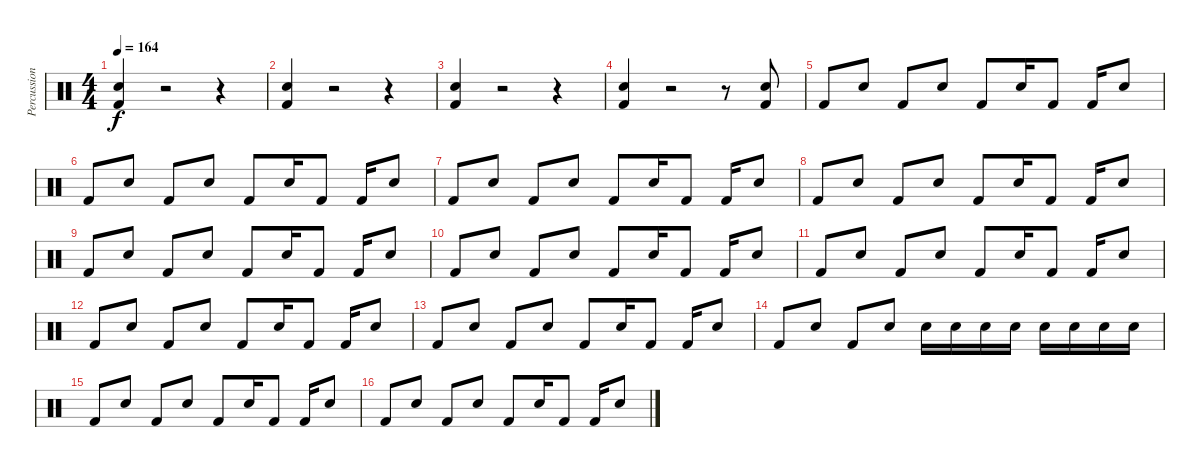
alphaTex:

\track ("Percussion" "Percussion") {instrument percussion}
\staff {score}
\articulation defaults
\ts (4 4)
\tempo 164
\clef neutral
\ks c
("Snare (hit) 2" "Kick (hit) 2").4{dy f} r.2 r.4 |
("Snare (hit) 2" "Kick (hit) 2").4 r.2 r.4 |
("Snare (hit) 2" "Kick (hit) 2").4 r.2 r.4 |
("Snare (hit) 2" "Kick (hit) 2").4 r.2 r.8 ("Snare (hit) 2" "Kick (hit) 2").8 |
"Kick (hit) 2".8 "Snare (hit) 2".8 "Kick (hit) 2".8 "Snare (hit) 2".8 "Kick (hit) 2".8 "Snare (hit) 2".16 "Kick (hit) 2".8 "Kick (hit) 2".16 "Snare (hit) 2".8 |
"Kick (hit) 2".8 "Snare (hit) 2".8 "Kick (hit) 2".8 "Snare (hit) 2".8 "Kick (hit) 2".8 "Snare (hit) 2".16 "Kick (hit) 2".8 "Kick (hit) 2".16 "Snare (hit) 2".8 |
"Kick (hit) 2".8 "Snare (hit) 2".8 "Kick (hit) 2".8 "Snare (hit) 2".8 "Kick (hit) 2".8 "Snare (hit) 2".16 "Kick (hit) 2".8 "Kick (hit) 2".16 "Snare (hit) 2".8 |
"Kick (hit) 2".8 "Snare (hit) 2".8 "Kick (hit) 2".8 "Snare (hit) 2".8 "Kick (hit) 2".8 "Snare (hit) 2".16 "Kick (hit) 2".8 "Kick (hit) 2".16 "Snare (hit) 2".8 |
"Kick (hit) 2".8 "Snare (hit) 2".8 "Kick (hit) 2".8 "Snare (hit) 2".8 "Kick (hit) 2".8 "Snare (hit) 2".16 "Kick (hit) 2".8 "Kick (hit) 2".16 "Snare (hit) 2".8 |
"Kick (hit) 2".8 "Snare (hit) 2".8 "Kick (hit) 2".8 "Snare (hit) 2".8 "Kick (hit) 2".8 "Snare (hit) 2".16 "Kick (hit) 2".8 "Kick (hit) 2".16 "Snare (hit) 2".8 |
"Kick (hit) 2".8 "Snare (hit) 2".8 "Kick (hit) 2".8 "Snare (hit) 2".8 "Kick (hit) 2".8 "Snare (hit) 2".16 "Kick (hit) 2".8 "Kick (hit) 2".16 "Snare (hit) 2".8 |
"Kick (hit) 2".8 "Snare (hit) 2".8 "Kick (hit) 2".8 "Snare (hit) 2".8 "Kick (hit) 2".8 "Snare (hit) 2".16 "Kick (hit) 2".8 "Kick (hit) 2".16 "Snare (hit) 2".8 |
"Kick (hit) 2".8 "Snare (hit) 2".8 "Kick (hit) 2".8 "Snare (hit) 2".8 "Kick (hit) 2".8 "Snare (hit) 2".16 "Kick (hit) 2".8 "Kick (hit) 2".16 "Snare (hit) 2".8 |
"Kick (hit) 2".8 "Snare (hit) 2".8 "Kick (hit) 2".8 "Snare (hit) 2".8 "Snare (hit) 2".16 "Snare (hit) 2".16 "Snare (hit) 2".16 "Snare (hit) 2".16 "Snare (hit) 2".16 "Snare (hit) 2".16 "Snare (hit) 2".16 "Snare (hit) 2".16 |
"Kick (hit) 2".8 "Snare (hit) 2".8 "Kick (hit) 2".8 "Snare (hit) 2".8 "Kick (hit) 2".8 "Snare (hit) 2".16 "Kick (hit) 2".8 "Kick (hit) 2".16 "Snare (hit) 2".8 |
"Kick (hit) 2".8 "Snare (hit) 2".8 "Kick (hit) 2".8 "Snare (hit) 2".8 "Kick (hit) 2".8 "Snare (hit) 2".16 "Kick (hit) 2".8 "Kick (hit) 2".16 "Snare (hit) 2".8
